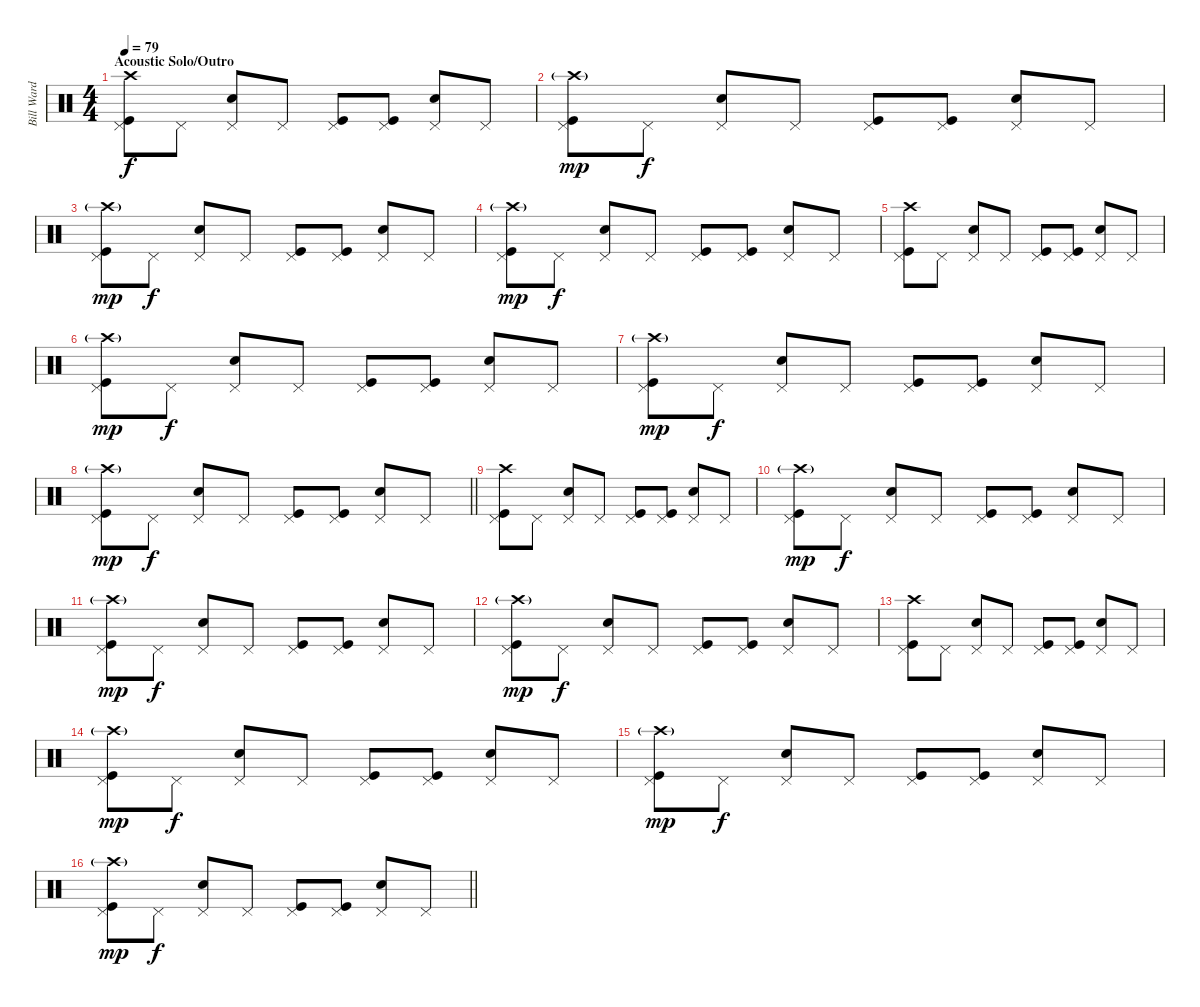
\track ("Bill Ward" "Bill Ward") {instrument percussion}
\staff {score}
\articulation defaults
\ts (4 4)
\section ("" "Acoustic Solo/Outro")
\tempo 79
\clef neutral
\ks c
("Crash high (hit)" "Pedal Hi-Hat (hit)" "Kick (hit)").8{dy f} "Pedal Hi-Hat (hit)".8 ("Pedal Hi-Hat (hit)" "Electric Snare (hit)").8 "Pedal Hi-Hat (hit)".8 ("Pedal Hi-Hat (hit)" "Kick (hit)").8 ("Pedal Hi-Hat (hit)" "Kick (hit)").8 ("Pedal Hi-Hat (hit)" "Electric Snare (hit)").8 "Pedal Hi-Hat (hit)".8 |
("Crash high (hit)"{g} "Pedal Hi-Hat (hit)" "Kick (hit)").8{dy mp} "Pedal Hi-Hat (hit)".8{dy f} ("Pedal Hi-Hat (hit)" "Electric Snare (hit)").8 "Pedal Hi-Hat (hit)".8 ("Pedal Hi-Hat (hit)" "Kick (hit)").8 ("Pedal Hi-Hat (hit)" "Kick (hit)").8 ("Pedal Hi-Hat (hit)" "Electric Snare (hit)").8 "Pedal Hi-Hat (hit)".8 |
("Crash high (hit)"{g} "Pedal Hi-Hat (hit)" "Kick (hit)").8{dy mp} "Pedal Hi-Hat (hit)".8{dy f} ("Pedal Hi-Hat (hit)" "Electric Snare (hit)").8 "Pedal Hi-Hat (hit)".8 ("Pedal Hi-Hat (hit)" "Kick (hit)").8 ("Pedal Hi-Hat (hit)" "Kick (hit)").8 ("Pedal Hi-Hat (hit)" "Electric Snare (hit)").8 "Pedal Hi-Hat (hit)".8 |
("Crash high (hit)"{g} "Pedal Hi-Hat (hit)" "Kick (hit)").8{dy mp} "Pedal Hi-Hat (hit)".8{dy f} ("Pedal Hi-Hat (hit)" "Electric Snare (hit)").8 "Pedal Hi-Hat (hit)".8 ("Pedal Hi-Hat (hit)" "Kick (hit)").8 ("Pedal Hi-Hat (hit)" "Kick (hit)").8 ("Pedal Hi-Hat (hit)" "Electric Snare (hit)").8 "Pedal Hi-Hat (hit)".8 |
("Crash high (hit)" "Pedal Hi-Hat (hit)" "Kick (hit)").8 "Pedal Hi-Hat (hit)".8 ("Pedal Hi-Hat (hit)" "Electric Snare (hit)").8 "Pedal Hi-Hat (hit)".8 ("Pedal Hi-Hat (hit)" "Kick (hit)").8 ("Pedal Hi-Hat (hit)" "Kick (hit)").8 ("Pedal Hi-Hat (hit)" "Electric Snare (hit)").8 "Pedal Hi-Hat (hit)".8 |
("Crash high (hit)"{g} "Pedal Hi-Hat (hit)" "Kick (hit)").8{dy mp} "Pedal Hi-Hat (hit)".8{dy f} ("Pedal Hi-Hat (hit)" "Electric Snare (hit)").8 "Pedal Hi-Hat (hit)".8 ("Pedal Hi-Hat (hit)" "Kick (hit)").8 ("Pedal Hi-Hat (hit)" "Kick (hit)").8 ("Pedal Hi-Hat (hit)" "Electric Snare (hit)").8 "Pedal Hi-Hat (hit)".8 |
("Crash high (hit)"{g} "Pedal Hi-Hat (hit)" "Kick (hit)").8{dy mp} "Pedal Hi-Hat (hit)".8{dy f} ("Pedal Hi-Hat (hit)" "Electric Snare (hit)").8 "Pedal Hi-Hat (hit)".8 ("Pedal Hi-Hat (hit)" "Kick (hit)").8 ("Pedal Hi-Hat (hit)" "Kick (hit)").8 ("Pedal Hi-Hat (hit)" "Electric Snare (hit)").8 "Pedal Hi-Hat (hit)".8 |
\barLineRight lightlight
("Crash high (hit)"{g} "Pedal Hi-Hat (hit)" "Kick (hit)").8{dy mp} "Pedal Hi-Hat (hit)".8{dy f} ("Pedal Hi-Hat (hit)" "Electric Snare (hit)").8 "Pedal Hi-Hat (hit)".8 ("Pedal Hi-Hat (hit)" "Kick (hit)").8 ("Pedal Hi-Hat (hit)" "Kick (hit)").8 ("Pedal Hi-Hat (hit)" "Electric Snare (hit)").8 "Pedal Hi-Hat (hit)".8 |
("Crash high (hit)" "Pedal Hi-Hat (hit)" "Kick (hit)").8 "Pedal Hi-Hat (hit)".8 ("Pedal Hi-Hat (hit)" "Electric Snare (hit)").8 "Pedal Hi-Hat (hit)".8 ("Pedal Hi-Hat (hit)" "Kick (hit)").8 ("Pedal Hi-Hat (hit)" "Kick (hit)").8 ("Pedal Hi-Hat (hit)" "Electric Snare (hit)").8 "Pedal Hi-Hat (hit)".8 |
("Crash high (hit)"{g} "Pedal Hi-Hat (hit)" "Kick (hit)").8{dy mp} "Pedal Hi-Hat (hit)".8{dy f} ("Pedal Hi-Hat (hit)" "Electric Snare (hit)").8 "Pedal Hi-Hat (hit)".8 ("Pedal Hi-Hat (hit)" "Kick (hit)").8 ("Pedal Hi-Hat (hit)" "Kick (hit)").8 ("Pedal Hi-Hat (hit)" "Electric Snare (hit)").8 "Pedal Hi-Hat (hit)".8 |
("Crash high (hit)"{g} "Pedal Hi-Hat (hit)" "Kick (hit)").8{dy mp} "Pedal Hi-Hat (hit)".8{dy f} ("Pedal Hi-Hat (hit)" "Electric Snare (hit)").8 "Pedal Hi-Hat (hit)".8 ("Pedal Hi-Hat (hit)" "Kick (hit)").8 ("Pedal Hi-Hat (hit)" "Kick (hit)").8 ("Pedal Hi-Hat (hit)" "Electric Snare (hit)").8 "Pedal Hi-Hat (hit)".8 |
("Crash high (hit)"{g} "Pedal Hi-Hat (hit)" "Kick (hit)").8{dy mp} "Pedal Hi-Hat (hit)".8{dy f} ("Pedal Hi-Hat (hit)" "Electric Snare (hit)").8 "Pedal Hi-Hat (hit)".8 ("Pedal Hi-Hat (hit)" "Kick (hit)").8 ("Pedal Hi-Hat (hit)" "Kick (hit)").8 ("Pedal Hi-Hat (hit)" "Electric Snare (hit)").8 "Pedal Hi-Hat (hit)".8 |
("Crash high (hit)" "Pedal Hi-Hat (hit)" "Kick (hit)").8 "Pedal Hi-Hat (hit)".8 ("Pedal Hi-Hat (hit)" "Electric Snare (hit)").8 "Pedal Hi-Hat (hit)".8 ("Pedal Hi-Hat (hit)" "Kick (hit)").8 ("Pedal Hi-Hat (hit)" "Kick (hit)").8 ("Pedal Hi-Hat (hit)" "Electric Snare (hit)").8 "Pedal Hi-Hat (hit)".8 |
("Crash high (hit)"{g} "Pedal Hi-Hat (hit)" "Kick (hit)").8{dy mp} "Pedal Hi-Hat (hit)".8{dy f} ("Pedal Hi-Hat (hit)" "Electric Snare (hit)").8 "Pedal Hi-Hat (hit)".8 ("Pedal Hi-Hat (hit)" "Kick (hit)").8 ("Pedal Hi-Hat (hit)" "Kick (hit)").8 ("Pedal Hi-Hat (hit)" "Electric Snare (hit)").8 "Pedal Hi-Hat (hit)".8 |
("Crash high (hit)"{g} "Pedal Hi-Hat (hit)" "Kick (hit)").8{dy mp} "Pedal Hi-Hat (hit)".8{dy f} ("Pedal Hi-Hat (hit)" "Electric Snare (hit)").8 "Pedal Hi-Hat (hit)".8 ("Pedal Hi-Hat (hit)" "Kick (hit)").8 ("Pedal Hi-Hat (hit)" "Kick (hit)").8 ("Pedal Hi-Hat (hit)" "Electric Snare (hit)").8 "Pedal Hi-Hat (hit)".8 |
\barLineRight lightlight
("Crash high (hit)"{g} "Pedal Hi-Hat (hit)" "Kick (hit)").8{dy mp} "Pedal Hi-Hat (hit)".8{dy f} ("Pedal Hi-Hat (hit)" "Electric Snare (hit)").8 "Pedal Hi-Hat (hit)".8 ("Pedal Hi-Hat (hit)" "Kick (hit)").8 ("Pedal Hi-Hat (hit)" "Kick (hit)").8 ("Pedal Hi-Hat (hit)" "Electric Snare (hit)").8 "Pedal Hi-Hat (hit)".8
